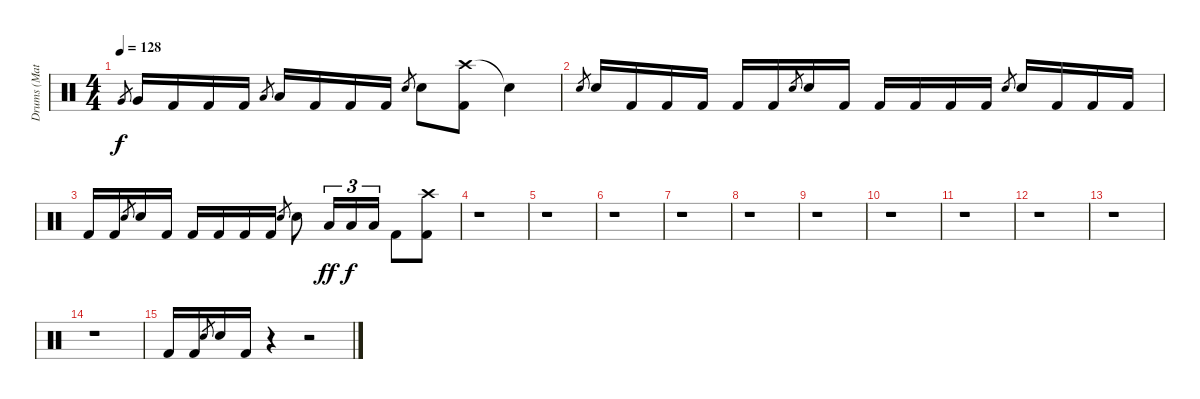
\track ("Drums (Matt)" "Drums (Mat") {instrument percussion}
\staff {score}
\articulation defaults
\ts (4 4)
\tempo 128
\clef neutral
\ks c "Very Low Tom (hit)".8{gr dy f} "Very Low Tom (hit)".16 "Kick (hit) 2".16 "Kick (hit) 2".16 "Kick (hit) 2".16 "Low Floor Tom (hit)".8{gr} "Low Floor Tom (hit)".16 "Kick (hit) 2".16 "Kick (hit) 2".16 "Kick (hit) 2".16 "Snare (hit) 2".8{gr} "Snare (hit) 2".8
("Crash high (hit)" "Kick (hit) 2").8 "Snare (hit)"{t}.4 |
"Snare (hit) 2".8{gr} "Snare (hit) 2".16 "Kick (hit) 2".16 "Kick (hit) 2".16 "Kick (hit) 2".16 "Kick (hit) 2".16 "Kick (hit) 2".16 "Snare (hit) 2".8{gr} "Snare (hit) 2".16 "Kick (hit) 2".16 "Kick (hit) 2".16 "Kick (hit) 2".16 "Kick (hit) 2".16 "Kick (hit) 2".16 "Snare (hit) 2".8{gr} "Snare (hit) 2".16 "Kick (hit) 2".16 "Kick (hit) 2".16 "Kick (hit) 2".16 |
"Kick (hit) 2".16 "Kick (hit) 2".16 "Snare (hit) 2".8{gr} "Snare (hit) 2".16 "Kick (hit) 2".16 "Kick (hit) 2".16 "Kick (hit) 2".16 "Kick (hit) 2".16 "Kick (hit) 2".16 "Snare (hit) 2".8{gr} "Snare (hit) 2".8 "Low Tom (hit)".16{tu (3 2) dy ff} "Low Tom (hit)".16{tu (3 2) dy f} "Low Tom (hit)".16{tu (3 2)} "Kick (hit) 2".8 ("Crash high (hit)" "Kick (hit) 2").8 |
r.1 |
r.1 |
r.1 |
r.1 |
r.1 |
r.1 |
r.1 |
r.1 |
r.1 |
r.1 |
r.1 |
"Kick (hit) 2".16 "Kick (hit) 2".16 "Snare (hit) 2".8{gr} "Snare (hit) 2".16 "Kick (hit) 2".16 r.4 r.2
